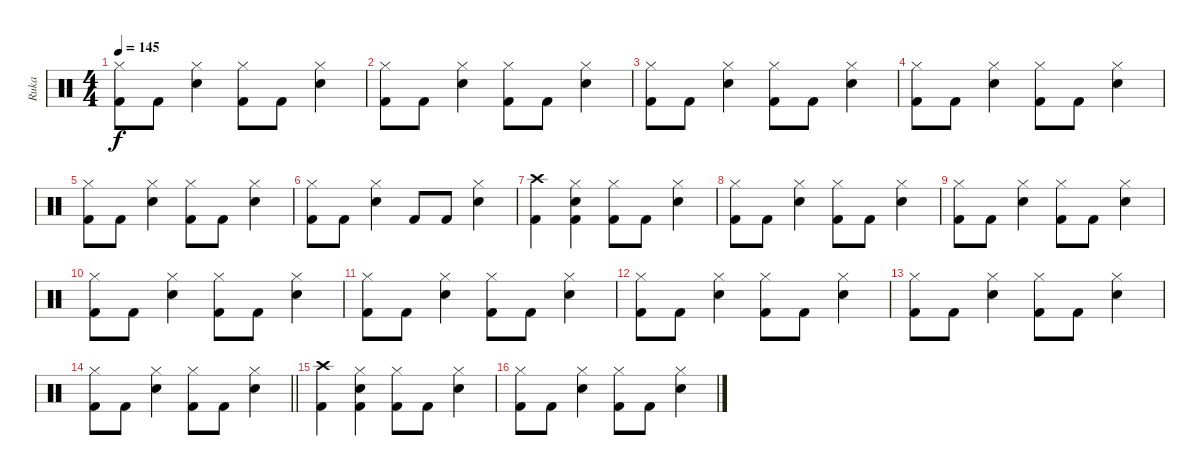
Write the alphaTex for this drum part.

\track ("Ruka" "Ruka") {instrument percussion}
\staff {score}
\articulation defaults
\ts (4 4)
\tempo 145
\clef neutral
\ks c
("Hi-Hat (closed)" "Kick (hit) 2").8{dy f} "Kick (hit) 2".8 ("Hi-Hat (closed)" "Electric Snare (hit)").4 ("Hi-Hat (closed)" "Kick (hit) 2").8 "Kick (hit) 2".8 ("Hi-Hat (closed)" "Electric Snare (hit)").4 |
("Hi-Hat (closed)" "Kick (hit) 2").8 "Kick (hit) 2".8 ("Hi-Hat (closed)" "Electric Snare (hit)").4 ("Hi-Hat (closed)" "Kick (hit) 2").8 "Kick (hit) 2".8 ("Hi-Hat (closed)" "Electric Snare (hit)").4 |
("Hi-Hat (closed)" "Kick (hit) 2").8 "Kick (hit) 2".8 ("Hi-Hat (closed)" "Electric Snare (hit)").4 ("Hi-Hat (closed)" "Kick (hit) 2").8 "Kick (hit) 2".8 ("Hi-Hat (closed)" "Electric Snare (hit)").4 |
("Hi-Hat (closed)" "Kick (hit) 2").8 "Kick (hit) 2".8 ("Hi-Hat (closed)" "Electric Snare (hit)").4 ("Hi-Hat (closed)" "Kick (hit) 2").8 "Kick (hit) 2".8 ("Hi-Hat (closed)" "Electric Snare (hit)").4 |
("Hi-Hat (closed)" "Kick (hit) 2").8 "Kick (hit) 2".8 ("Hi-Hat (closed)" "Electric Snare (hit)").4 ("Hi-Hat (closed)" "Kick (hit) 2").8 "Kick (hit) 2".8 ("Hi-Hat (closed)" "Electric Snare (hit)").4 |
("Hi-Hat (closed)" "Kick (hit) 2").8 "Kick (hit) 2".8 ("Hi-Hat (closed)" "Electric Snare (hit)").4 "Kick (hit) 2".8 "Kick (hit) 2".8 ("Hi-Hat (closed)" "Electric Snare (hit)").4 |
("Crash high (hit)" "Kick (hit) 2").4 ("Hi-Hat (closed)" "Electric Snare (hit)" "Kick (hit) 2").4 ("Hi-Hat (closed)" "Kick (hit) 2").8 "Kick (hit) 2".8 ("Hi-Hat (closed)" "Electric Snare (hit)").4 |
("Hi-Hat (closed)" "Kick (hit) 2").8 "Kick (hit) 2".8 ("Hi-Hat (closed)" "Electric Snare (hit)").4 ("Hi-Hat (closed)" "Kick (hit) 2").8 "Kick (hit) 2".8 ("Hi-Hat (closed)" "Electric Snare (hit)").4 |
("Hi-Hat (closed)" "Kick (hit) 2").8 "Kick (hit) 2".8 ("Hi-Hat (closed)" "Electric Snare (hit)").4 ("Hi-Hat (closed)" "Kick (hit) 2").8 "Kick (hit) 2".8 ("Hi-Hat (closed)" "Electric Snare (hit)").4 |
("Hi-Hat (closed)" "Kick (hit) 2").8 "Kick (hit) 2".8 ("Hi-Hat (closed)" "Electric Snare (hit)").4 ("Hi-Hat (closed)" "Kick (hit) 2").8 "Kick (hit) 2".8 ("Hi-Hat (closed)" "Electric Snare (hit)").4 |
("Hi-Hat (closed)" "Kick (hit) 2").8 "Kick (hit) 2".8 ("Hi-Hat (closed)" "Electric Snare (hit)").4 ("Hi-Hat (closed)" "Kick (hit) 2").8 "Kick (hit) 2".8 ("Hi-Hat (closed)" "Electric Snare (hit)").4 |
("Hi-Hat (closed)" "Kick (hit) 2").8 "Kick (hit) 2".8 ("Hi-Hat (closed)" "Electric Snare (hit)").4 ("Hi-Hat (closed)" "Kick (hit) 2").8 "Kick (hit) 2".8 ("Hi-Hat (closed)" "Electric Snare (hit)").4 |
("Hi-Hat (closed)" "Kick (hit) 2").8 "Kick (hit) 2".8 ("Hi-Hat (closed)" "Electric Snare (hit)").4 ("Hi-Hat (closed)" "Kick (hit) 2").8 "Kick (hit) 2".8 ("Hi-Hat (closed)" "Electric Snare (hit)").4 |
\barLineRight lightlight
("Hi-Hat (closed)" "Kick (hit) 2").8 "Kick (hit) 2".8 ("Hi-Hat (closed)" "Electric Snare (hit)").4 ("Hi-Hat (closed)" "Kick (hit) 2").8 "Kick (hit) 2".8 ("Hi-Hat (closed)" "Electric Snare (hit)").4 |
("Crash high (hit)" "Kick (hit) 2").4 ("Hi-Hat (closed)" "Electric Snare (hit)" "Kick (hit) 2").4 ("Hi-Hat (closed)" "Kick (hit) 2").8 "Kick (hit) 2".8 ("Hi-Hat (closed)" "Electric Snare (hit)").4 |
("Hi-Hat (closed)" "Kick (hit) 2").8 "Kick (hit) 2".8 ("Hi-Hat (closed)" "Electric Snare (hit)").4 ("Hi-Hat (closed)" "Kick (hit) 2").8 "Kick (hit) 2".8 ("Hi-Hat (closed)" "Electric Snare (hit)").4
